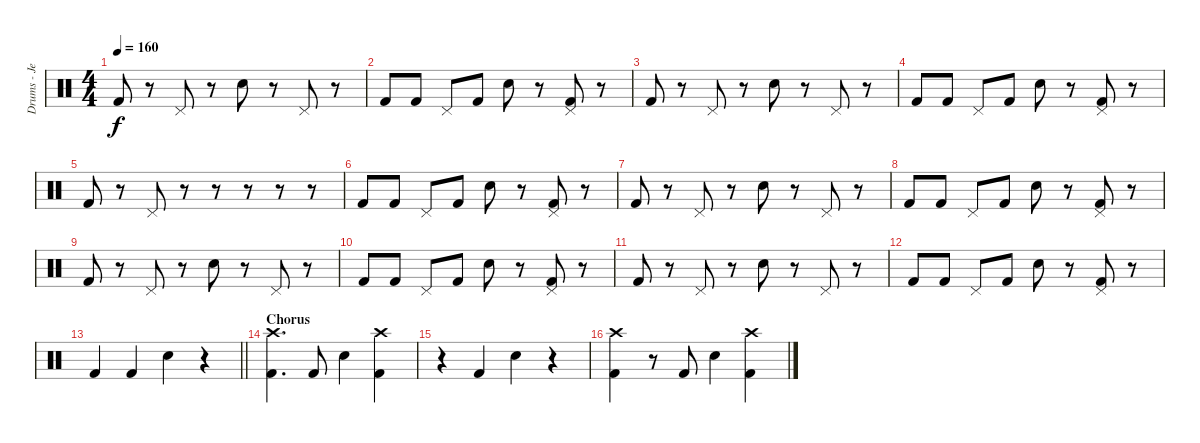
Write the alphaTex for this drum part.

\track ("Drums - Jen Ledger" "Drums - Je") {instrument percussion}
\staff {score}
\articulation defaults
\ts (4 4)
\tempo 160
\clef neutral
\ks c "Kick (hit) 2".8{dy f}
r.8 "Pedal Hi-Hat (hit)".8 r.8 "Snare (hit) 2".8 r.8 "Pedal Hi-Hat (hit)".8 r.8 |
"Kick (hit) 2".8 "Kick (hit) 2".8 "Pedal Hi-Hat (hit)".8 "Kick (hit) 2".8 "Snare (hit) 2".8 r.8 ("Kick (hit) 2" "Pedal Hi-Hat (hit)").8 r.8 |
"Kick (hit) 2".8 r.8 "Pedal Hi-Hat (hit)".8 r.8 "Snare (hit) 2".8 r.8 "Pedal Hi-Hat (hit)".8 r.8 |
"Kick (hit) 2".8 "Kick (hit) 2".8 "Pedal Hi-Hat (hit)".8 "Kick (hit) 2".8 "Snare (hit) 2".8 r.8 ("Kick (hit) 2" "Pedal Hi-Hat (hit)").8 r.8 |
"Kick (hit) 2".8 r.8 "Pedal Hi-Hat (hit)".8 r.8 r.8 r.8 r.8 r.8 |
"Kick (hit) 2".8 "Kick (hit) 2".8 "Pedal Hi-Hat (hit)".8 "Kick (hit) 2".8 "Snare (hit) 2".8 r.8 ("Kick (hit) 2" "Pedal Hi-Hat (hit)").8 r.8 |
"Kick (hit) 2".8 r.8 "Pedal Hi-Hat (hit)".8 r.8 "Snare (hit) 2".8 r.8 "Pedal Hi-Hat (hit)".8 r.8 |
"Kick (hit) 2".8 "Kick (hit) 2".8 "Pedal Hi-Hat (hit)".8 "Kick (hit) 2".8 "Snare (hit) 2".8 r.8 ("Kick (hit) 2" "Pedal Hi-Hat (hit)").8 r.8 |
"Kick (hit) 2".8 r.8 "Pedal Hi-Hat (hit)".8 r.8 "Snare (hit) 2".8 r.8 "Pedal Hi-Hat (hit)".8 r.8 |
"Kick (hit) 2".8 "Kick (hit) 2".8 "Pedal Hi-Hat (hit)".8 "Kick (hit) 2".8 "Snare (hit) 2".8 r.8 ("Kick (hit) 2" "Pedal Hi-Hat (hit)").8 r.8 |
"Kick (hit) 2".8 r.8 "Pedal Hi-Hat (hit)".8 r.8 "Snare (hit) 2".8 r.8 "Pedal Hi-Hat (hit)".8 r.8 |
"Kick (hit) 2".8 "Kick (hit) 2".8 "Pedal Hi-Hat (hit)".8 "Kick (hit) 2".8 "Snare (hit) 2".8 r.8 ("Kick (hit) 2" "Pedal Hi-Hat (hit)").8 r.8 |
\barLineRight lightlight "Kick (hit) 2".4 "Kick (hit) 2".4 "Snare (hit) 2".4
r.4 |
\section ("" "Chorus")
("Kick (hit) 2" "Crash high (hit)").4{d} "Kick (hit) 2".8 "Snare (hit) 2".4 ("Kick (hit) 2" "Crash high (hit)").4 |
r.4 "Kick (hit) 2".4 "Snare (hit) 2".4 r.4 |
("Kick (hit) 2" "Crash high (hit)").4 r.8 "Kick (hit) 2".8 "Snare (hit) 2".4 ("Kick (hit) 2" "Crash high (hit)").4
